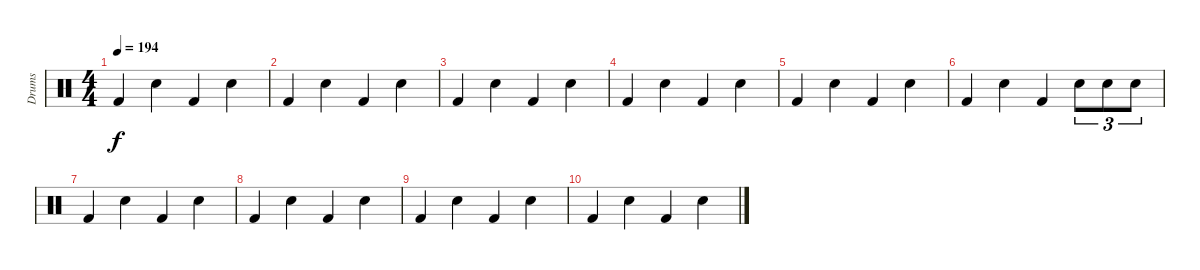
\track ("Drums" "Drums") {instrument percussion}
\staff {score}
\articulation defaults
\ts (4 4)
\tempo 194
\clef neutral
\ks c "Kick (hit) 2".4{dy f} "Snare (hit) 2".4 "Kick (hit) 2".4 "Snare (hit) 2".4
|
"Kick (hit) 2".4 "Snare (hit) 2".4 "Kick (hit) 2".4 "Snare (hit) 2".4 |
"Kick (hit) 2".4 "Snare (hit) 2".4 "Kick (hit) 2".4 "Snare (hit) 2".4 |
"Kick (hit) 2".4 "Snare (hit) 2".4 "Kick (hit) 2".4 "Snare (hit) 2".4 |
"Kick (hit) 2".4 "Snare (hit) 2".4 "Kick (hit) 2".4 "Snare (hit) 2".4 |
"Kick (hit) 2".4 "Snare (hit) 2".4 "Kick (hit) 2".4 "Snare (hit) 2".8{tu (3 2)} "Snare (hit) 2".8{tu (3 2)} "Snare (hit) 2".8{tu (3 2)} |
"Kick (hit) 2".4 "Snare (hit) 2".4 "Kick (hit) 2".4 "Snare (hit) 2".4 |
"Kick (hit) 2".4 "Snare (hit) 2".4 "Kick (hit) 2".4 "Snare (hit) 2".4 |
"Kick (hit) 2".4 "Snare (hit) 2".4 "Kick (hit) 2".4 "Snare (hit) 2".4 |
"Kick (hit) 2".4 "Snare (hit) 2".4 "Kick (hit) 2".4 "Snare (hit) 2".4
